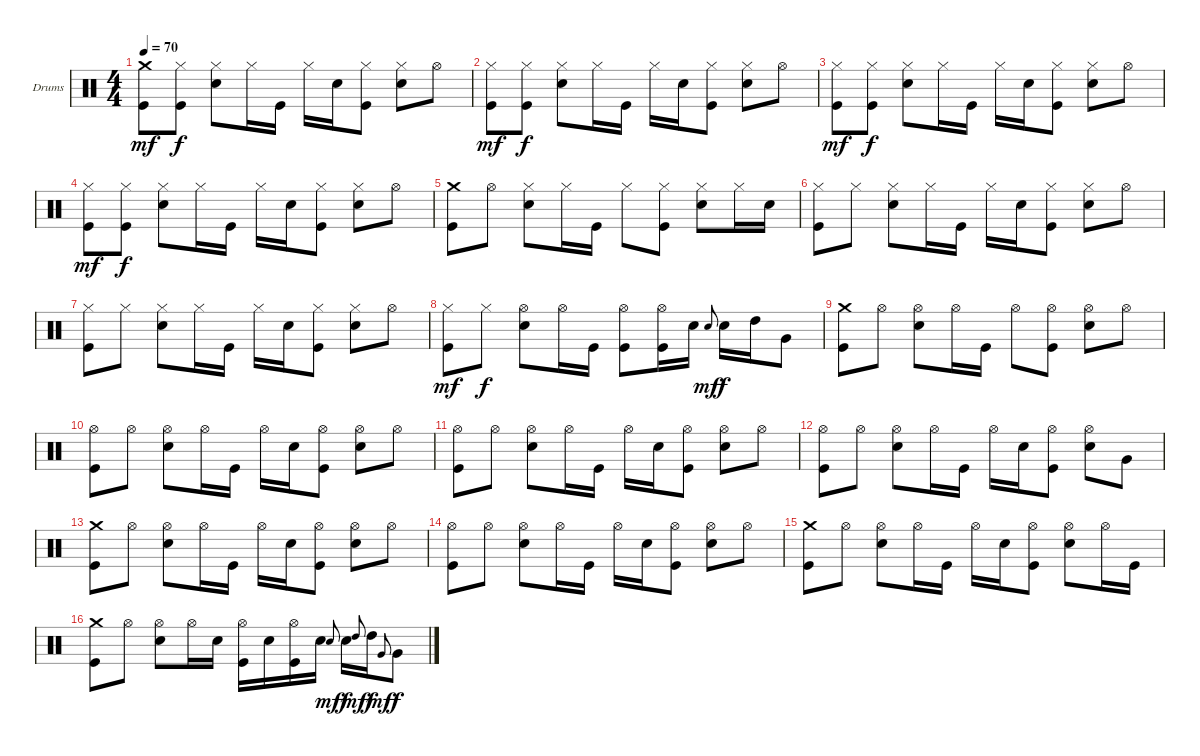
\bracketExtendMode groupsimilarinstruments
\firstSystemTrackNameOrientation horizontal
\otherSystemsTrackNameOrientation horizontal
\track ("Drumkit" "Drums") {instrument percussion}
\staff {score}
\articulation defaults
\ts (4 4)
\tempo 70
\clef neutral
\ks c
("Crash medium (hit)" "Kick (hit)").8{dy mf} ("Hi-Hat (closed)" "Kick (hit)").8{dy f} ("Hi-Hat (closed)" "Snare (hit) 2").8 "Hi-Hat (closed)".16 "Kick (hit)".16 "Hi-Hat (closed)".16 "Snare (hit) 2".16 ("Hi-Hat (closed)" "Kick (hit)").8 ("Hi-Hat (closed)" "Snare (hit) 2").8 "Hi-Hat (open)".8 |
("Hi-Hat (closed)" "Kick (hit)").8{dy mf} ("Hi-Hat (closed)" "Kick (hit)").8{dy f} ("Hi-Hat (closed)" "Snare (hit) 2").8 "Hi-Hat (closed)".16 "Kick (hit)".16 "Hi-Hat (closed)".16 "Snare (hit) 2".16 ("Hi-Hat (closed)" "Kick (hit)").8 ("Hi-Hat (closed)" "Snare (hit) 2").8 "Hi-Hat (open)".8 |
("Hi-Hat (closed)" "Kick (hit)").8{dy mf} ("Hi-Hat (closed)" "Kick (hit)").8{dy f} ("Hi-Hat (closed)" "Snare (hit) 2").8 "Hi-Hat (closed)".16 "Kick (hit)".16 "Hi-Hat (closed)".16 "Snare (hit) 2".16 ("Hi-Hat (closed)" "Kick (hit)").8 ("Hi-Hat (closed)" "Snare (hit) 2").8 "Hi-Hat (open)".8 |
("Hi-Hat (closed)" "Kick (hit)").8{dy mf} ("Hi-Hat (closed)" "Kick (hit)").8{dy f} ("Hi-Hat (closed)" "Snare (hit) 2").8 "Hi-Hat (closed)".16 "Kick (hit)".16 "Hi-Hat (closed)".16 "Snare (hit) 2".16 ("Hi-Hat (closed)" "Kick (hit)").8 ("Hi-Hat (closed)" "Snare (hit) 2").8 "Hi-Hat (open)".8 |
("Crash medium (hit)" "Kick (hit)").8 "Hi-Hat (open)".8 ("Hi-Hat (closed)" "Snare (hit) 2").8 "Hi-Hat (closed)".16 "Kick (hit)".16 "Hi-Hat (closed)".8 ("Hi-Hat (closed)" "Kick (hit)").8 ("Hi-Hat (closed)" "Snare (hit) 2").8 "Hi-Hat (closed)".16 "Snare (hit) 2".16 |
("Hi-Hat (closed)" "Kick (hit)").8 "Hi-Hat (closed)".8 ("Hi-Hat (closed)" "Snare (hit) 2").8 "Hi-Hat (closed)".16 "Kick (hit)".16 "Hi-Hat (closed)".16 "Snare (hit) 2".16 ("Hi-Hat (closed)" "Kick (hit)").8 ("Hi-Hat (closed)" "Snare (hit) 2").8 "Hi-Hat (open)".8 |
("Hi-Hat (closed)" "Kick (hit)").8 "Hi-Hat (closed)".8 ("Hi-Hat (closed)" "Snare (hit) 2").8 "Hi-Hat (closed)".16 "Kick (hit)".16 "Hi-Hat (closed)".16 "Snare (hit) 2".16 ("Hi-Hat (closed)" "Kick (hit)").8 ("Hi-Hat (closed)" "Snare (hit) 2").8 "Hi-Hat (open)".8 |
("Hi-Hat (closed)" "Kick (hit)").8{dy mf} "Hi-Hat (closed)".8{dy f} ("Hi-Hat (open)" "Snare (hit) 2").8 "Hi-Hat (open)".16 "Kick (hit)".16 ("Hi-Hat (open)" "Kick (hit)").8 ("Hi-Hat (open)" "Kick (hit)").16 "Snare (hit) 2".16 "Snare (hit) 2".8{gr onbeat dy mf} "Snare (hit) 2".16{dy f} "High Tom (hit)".16 "Very Low Tom (hit)".8 |
("Crash medium (hit)" "Kick (hit)").8 "Hi-Hat (open)".8 ("Hi-Hat (open)" "Snare (hit) 2").8 "Hi-Hat (open)".16 "Kick (hit)".16 "Hi-Hat (open)".8 ("Hi-Hat (open)" "Kick (hit)").8 ("Hi-Hat (open)" "Snare (hit) 2").8 "Hi-Hat (open)".8 |
("Hi-Hat (open)" "Kick (hit)").8 "Hi-Hat (open)".8 ("Hi-Hat (open)" "Snare (hit) 2").8 "Hi-Hat (open)".16 "Kick (hit)".16 "Hi-Hat (open)".16 "Snare (hit) 2".16 ("Hi-Hat (open)" "Kick (hit)").8 ("Hi-Hat (open)" "Snare (hit) 2").8 "Hi-Hat (open)".8 |
("Hi-Hat (open)" "Kick (hit)").8 "Hi-Hat (open)".8 ("Hi-Hat (open)" "Snare (hit) 2").8 "Hi-Hat (open)".16 "Kick (hit)".16 "Hi-Hat (open)".16 "Snare (hit) 2".16 ("Hi-Hat (open)" "Kick (hit)").8 ("Hi-Hat (open)" "Snare (hit) 2").8 "Hi-Hat (open)".8 |
("Hi-Hat (open)" "Kick (hit)").8 "Hi-Hat (open)".8 ("Hi-Hat (open)" "Snare (hit) 2").8 "Hi-Hat (open)".16 "Kick (hit)".16 "Hi-Hat (open)".16 "Snare (hit) 2".16 ("Hi-Hat (open)" "Kick (hit)").8 ("Hi-Hat (open)" "Snare (hit) 2").8 "Very Low Tom (hit)".8 |
("Crash medium (hit)" "Kick (hit)").8 "Hi-Hat (open)".8 ("Hi-Hat (open)" "Snare (hit) 2").8 "Hi-Hat (open)".16 "Kick (hit)".16 "Hi-Hat (open)".16 "Snare (hit) 2".16 ("Hi-Hat (open)" "Kick (hit)").8 ("Hi-Hat (open)" "Snare (hit) 2").8 "Hi-Hat (open)".8 |
("Hi-Hat (open)" "Kick (hit)").8 "Hi-Hat (open)".8 ("Hi-Hat (open)" "Snare (hit) 2").8 "Hi-Hat (open)".16 "Kick (hit)".16 "Hi-Hat (open)".16 "Snare (hit) 2".16 ("Hi-Hat (open)" "Kick (hit)").8 ("Hi-Hat (open)" "Snare (hit) 2").8 "Hi-Hat (open)".8 |
("Crash medium (hit)" "Kick (hit)").8 "Hi-Hat (open)".8 ("Hi-Hat (open)" "Snare (hit) 2").8 "Hi-Hat (open)".16 "Kick (hit)".16 "Hi-Hat (open)".16 "Snare (hit) 2".16 ("Hi-Hat (open)" "Kick (hit)").8 ("Hi-Hat (open)" "Snare (hit) 2").8 "Hi-Hat (open)".16 "Kick (hit)".16 |
("Crash medium (hit)" "Kick (hit)").8 "Hi-Hat (open)".8 ("Hi-Hat (open)" "Snare (hit) 2").8 "Hi-Hat (open)".16 "Snare (hit) 2".16 ("Hi-Hat (open)" "Kick (hit)").16 "Snare (hit) 2".16 ("Hi-Hat (open)" "Kick (hit)").16 "Snare (hit) 2".16 "Snare (hit) 2".8{gr onbeat dy mf} "Snare (hit) 2".16{dy f} "High Tom (hit)".8{gr onbeat dy mf} "High Tom (hit)".16{dy f} "Very Low Tom (hit)".8{gr onbeat dy mf} "Very Low Tom (hit)".8{dy f}
